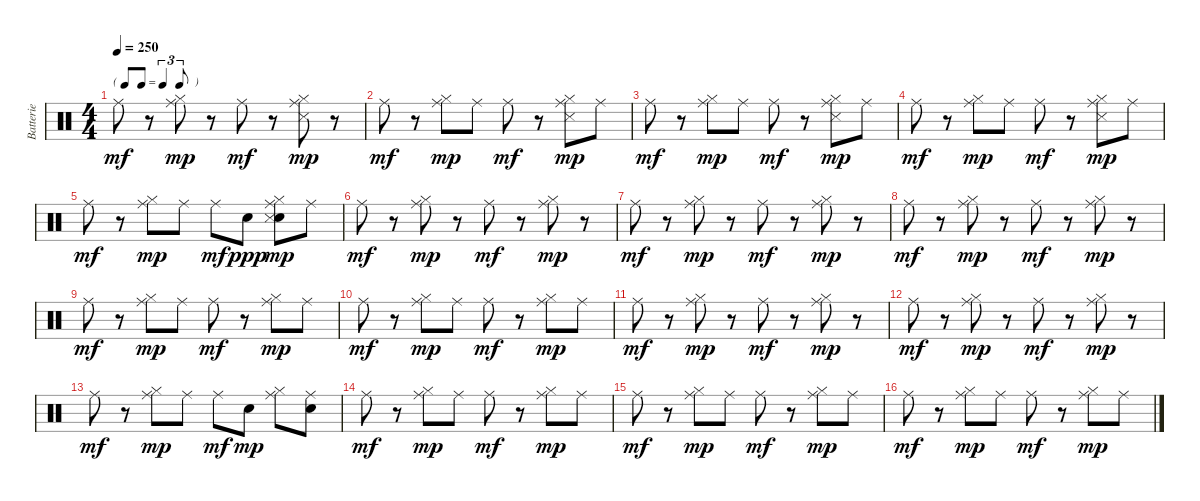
\track ("Batterie" "Batterie") {instrument percussion}
\staff {score}
\articulation defaults
\ts (4 4)
\tf triplet8th
\tempo 250
\clef neutral
\ks c "Ride (middle)".8{dy mf}
r.8 ("Hi-Hat (closed)" "Ride (middle)").8{dy mp} r.8 "Ride (middle)".8{dy mf} r.8 ("Hi-Hat (closed)" "Snare (side stick) 3" "Ride (middle)").8{dy mp} r.8 |
"Ride (middle)".8{dy mf} r.8 ("Hi-Hat (closed)" "Ride (middle)").8{dy mp} "Ride (middle)".8 "Ride (middle)".8{dy mf} r.8 ("Hi-Hat (closed)" "Snare (side stick) 3" "Ride (middle)").8{dy mp} "Ride (middle)".8 |
"Ride (middle)".8{dy mf} r.8 ("Hi-Hat (closed)" "Ride (middle)").8{dy mp} "Ride (middle)".8 "Ride (middle)".8{dy mf} r.8 ("Hi-Hat (closed)" "Snare (side stick) 3" "Ride (middle)").8{dy mp} "Ride (middle)".8 |
"Ride (middle)".8{dy mf} r.8 ("Hi-Hat (closed)" "Ride (middle)").8{dy mp} "Ride (middle)".8 "Ride (middle)".8{dy mf} r.8 ("Hi-Hat (closed)" "Snare (side stick) 3" "Ride (middle)").8{dy mp} "Ride (middle)".8 |
"Ride (middle)".8{dy mf} r.8 ("Hi-Hat (closed)" "Ride (middle)").8{dy mp} "Ride (middle)".8 "Ride (middle)".8{dy mf} "Snare (hit) 2".8{dy ppp} ("Snare (hit) 2" "Hi-Hat (closed)" "Snare (side stick) 3" "Ride (middle)").8{dy mp} "Ride (middle)".8 |
"Ride (middle)".8{dy mf} r.8 ("Hi-Hat (closed)" "Ride (middle)").8{dy mp} r.8 "Ride (middle)".8{dy mf} r.8 ("Hi-Hat (closed)" "Ride (middle)").8{dy mp} r.8 |
"Ride (middle)".8{dy mf} r.8 ("Hi-Hat (closed)" "Ride (middle)").8{dy mp} r.8 "Ride (middle)".8{dy mf} r.8 ("Hi-Hat (closed)" "Ride (middle)").8{dy mp} r.8 |
"Ride (middle)".8{dy mf} r.8 ("Hi-Hat (closed)" "Ride (middle)").8{dy mp} r.8 "Ride (middle)".8{dy mf} r.8 ("Hi-Hat (closed)" "Ride (middle)").8{dy mp} r.8 |
"Ride (middle)".8{dy mf} r.8 ("Hi-Hat (closed)" "Ride (middle)").8{dy mp} "Ride (middle)".8 "Ride (middle)".8{dy mf} r.8 ("Hi-Hat (closed)" "Ride (middle)").8{dy mp} "Ride (middle)".8 |
"Ride (middle)".8{dy mf} r.8 ("Hi-Hat (closed)" "Ride (middle)").8{dy mp} "Ride (middle)".8 "Ride (middle)".8{dy mf} r.8 ("Hi-Hat (closed)" "Ride (middle)").8{dy mp} "Ride (middle)".8 |
"Ride (middle)".8{dy mf} r.8 ("Hi-Hat (closed)" "Ride (middle)").8{dy mp} r.8 "Ride (middle)".8{dy mf} r.8 ("Hi-Hat (closed)" "Ride (middle)").8{dy mp} r.8 |
"Ride (middle)".8{dy mf} r.8 ("Hi-Hat (closed)" "Ride (middle)").8{dy mp} r.8 "Ride (middle)".8{dy mf} r.8 ("Hi-Hat (closed)" "Ride (middle)").8{dy mp} r.8 |
"Ride (middle)".8{dy mf} r.8 ("Hi-Hat (closed)" "Ride (middle)").8{dy mp} "Ride (middle)".8 "Ride (middle)".8{dy mf} "Snare (hit) 2".8{dy mp} ("Hi-Hat (closed)" "Ride (middle)").8 ("Snare (hit) 2" "Ride (middle)").8 |
"Ride (middle)".8{dy mf} r.8 ("Hi-Hat (closed)" "Ride (middle)").8{dy mp} "Ride (middle)".8 "Ride (middle)".8{dy mf} r.8 ("Hi-Hat (closed)" "Ride (middle)").8{dy mp} "Ride (middle)".8 |
"Ride (middle)".8{dy mf} r.8 ("Hi-Hat (closed)" "Ride (middle)").8{dy mp} "Ride (middle)".8 "Ride (middle)".8{dy mf} r.8 ("Hi-Hat (closed)" "Ride (middle)").8{dy mp} "Ride (middle)".8 |
"Ride (middle)".8{dy mf} r.8 ("Hi-Hat (closed)" "Ride (middle)").8{dy mp} "Ride (middle)".8 "Ride (middle)".8{dy mf} r.8 ("Hi-Hat (closed)" "Ride (middle)").8{dy mp} "Ride (middle)".8
